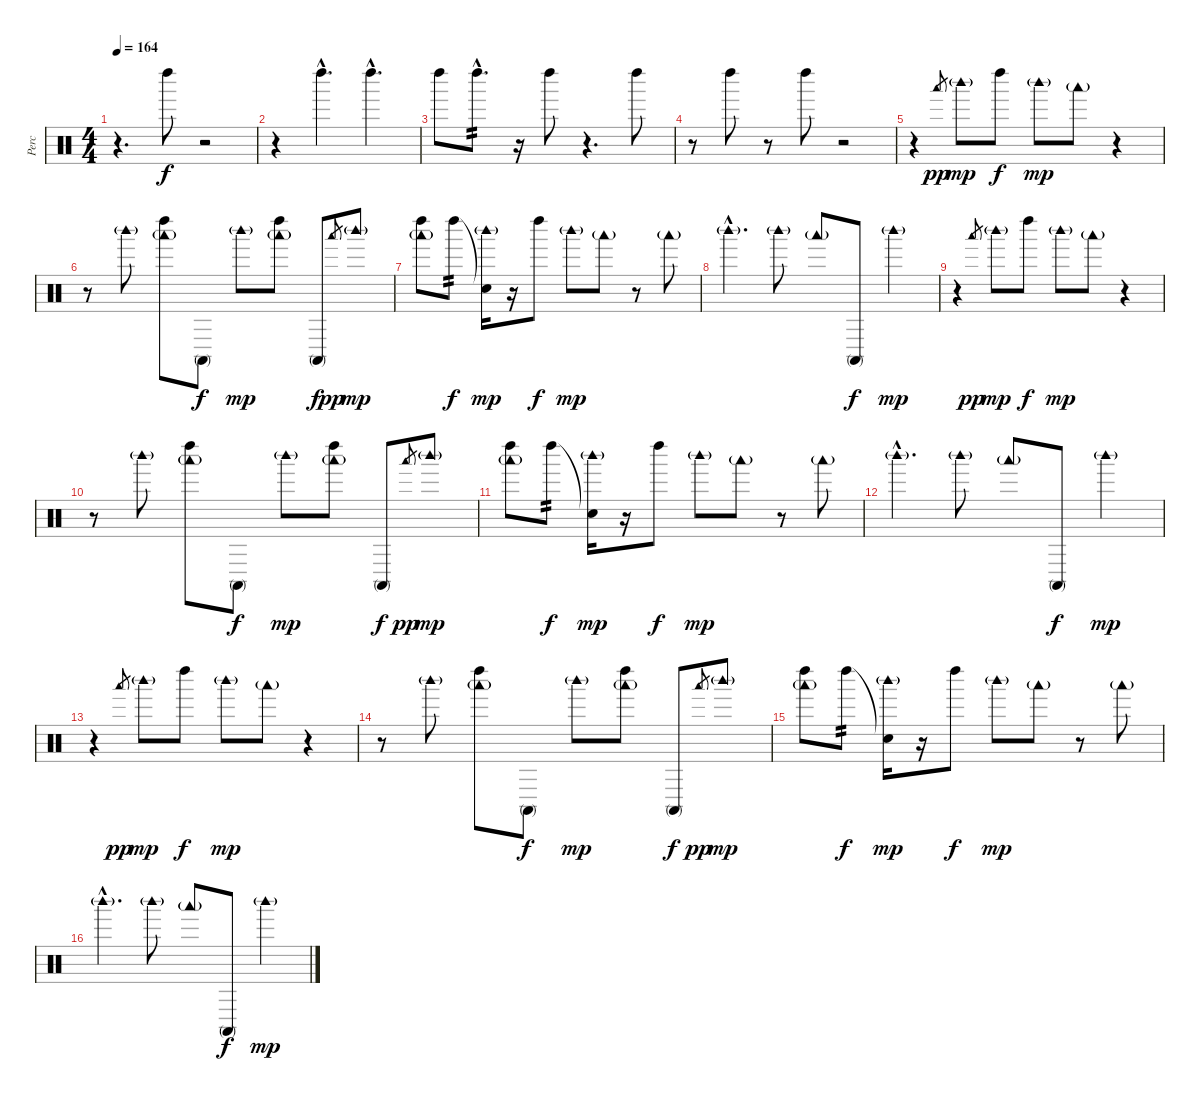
\track ("Perc" "Perc") {instrument percussion}
\staff {score}
\articulation defaults
\ts (4 4)
\tempo 164
\clef neutral
\ks c
r.4{d dy f volume 16} "Left Maraca (hit)".8 r.2 |
r.4 "Left Maraca (hit)"{hac}.4{d} "Left Maraca (hit)"{hac}.4{d} |
"Left Maraca (hit)".8 "Left Maraca (hit)"{hac}.8{d tp 2} r.16 "Left Maraca (hit)".8 r.4{d} "Left Maraca (hit)".8 |
r.8 "Left Maraca (hit)".8 r.8 "Left Maraca (hit)".8 r.2 |
r.4 "Woodblock low (hit)".8{gr dy pp} "Woodblock high (hit)"{g}.8{dy mp} "Left Maraca (hit)".8{dy f} "Woodblock high (hit)"{g}.8{dy mp} "Woodblock low (hit)"{g}.8 r.4 |
r.8 "Woodblock high (hit)"{g}.8 ("Left Maraca (hit)" "Woodblock low (hit)"{g}).8 "Conga high (mute)".8{dy f} "Woodblock high (hit)"{g}.8{dy mp} ("Left Maraca (hit)" "Woodblock low (hit)"{g}).8 "Conga high (mute)".8{dy f} "Woodblock low (hit)".8{gr dy pp} "Woodblock high (hit)"{g}.8{dy mp} |
("Left Maraca (hit)" "Woodblock low (hit)"{g}).8 "Left Maraca (hit)".8{tp 2 dy f} ("Snare (hit)"{t} "Woodblock high (hit)"{g}).16{dy mp} r.16 "Left Maraca (hit)".8{dy f} "Woodblock high (hit)"{g}.8{dy mp} "Woodblock low (hit)"{g}.8 r.8 "Woodblock low (hit)"{g}.8 |
"Woodblock high (hit)"{g hac}.4{d} "Woodblock high (hit)"{g}.8 "Woodblock low (hit)"{g}.8 "Conga high (mute)".8{dy f} "Woodblock high (hit)"{g}.4{dy mp} |
r.4 "Woodblock low (hit)".8{gr dy pp} "Woodblock high (hit)"{g}.8{dy mp} "Left Maraca (hit)".8{dy f} "Woodblock high (hit)"{g}.8{dy mp} "Woodblock low (hit)"{g}.8 r.4 |
r.8 "Woodblock high (hit)"{g}.8 ("Left Maraca (hit)" "Woodblock low (hit)"{g}).8 "Conga high (mute)".8{dy f} "Woodblock high (hit)"{g}.8{dy mp} ("Left Maraca (hit)" "Woodblock low (hit)"{g}).8 "Conga high (mute)".8{dy f} "Woodblock low (hit)".8{gr dy pp} "Woodblock high (hit)"{g}.8{dy mp} |
("Left Maraca (hit)" "Woodblock low (hit)"{g}).8 "Left Maraca (hit)".8{tp 2 dy f} ("Snare (hit)"{t} "Woodblock high (hit)"{g}).16{dy mp} r.16 "Left Maraca (hit)".8{dy f} "Woodblock high (hit)"{g}.8{dy mp} "Woodblock low (hit)"{g}.8 r.8 "Woodblock low (hit)"{g}.8 |
"Woodblock high (hit)"{g hac}.4{d} "Woodblock high (hit)"{g}.8 "Woodblock low (hit)"{g}.8 "Conga high (mute)".8{dy f} "Woodblock high (hit)"{g}.4{dy mp} |
r.4 "Woodblock low (hit)".8{gr dy pp} "Woodblock high (hit)"{g}.8{dy mp} "Left Maraca (hit)".8{dy f} "Woodblock high (hit)"{g}.8{dy mp} "Woodblock low (hit)"{g}.8 r.4 |
r.8 "Woodblock high (hit)"{g}.8 ("Left Maraca (hit)" "Woodblock low (hit)"{g}).8 "Conga high (mute)".8{dy f} "Woodblock high (hit)"{g}.8{dy mp} ("Left Maraca (hit)" "Woodblock low (hit)"{g}).8 "Conga high (mute)".8{dy f} "Woodblock low (hit)".8{gr dy pp} "Woodblock high (hit)"{g}.8{dy mp} |
("Left Maraca (hit)" "Woodblock low (hit)"{g}).8 "Left Maraca (hit)".8{tp 2 dy f} ("Snare (hit)"{t} "Woodblock high (hit)"{g}).16{dy mp} r.16 "Left Maraca (hit)".8{dy f} "Woodblock high (hit)"{g}.8{dy mp} "Woodblock low (hit)"{g}.8 r.8 "Woodblock low (hit)"{g}.8 |
"Woodblock high (hit)"{g hac}.4{d} "Woodblock high (hit)"{g}.8 "Woodblock low (hit)"{g}.8 "Conga high (mute)".8{dy f} "Woodblock high (hit)"{g}.4{dy mp}
